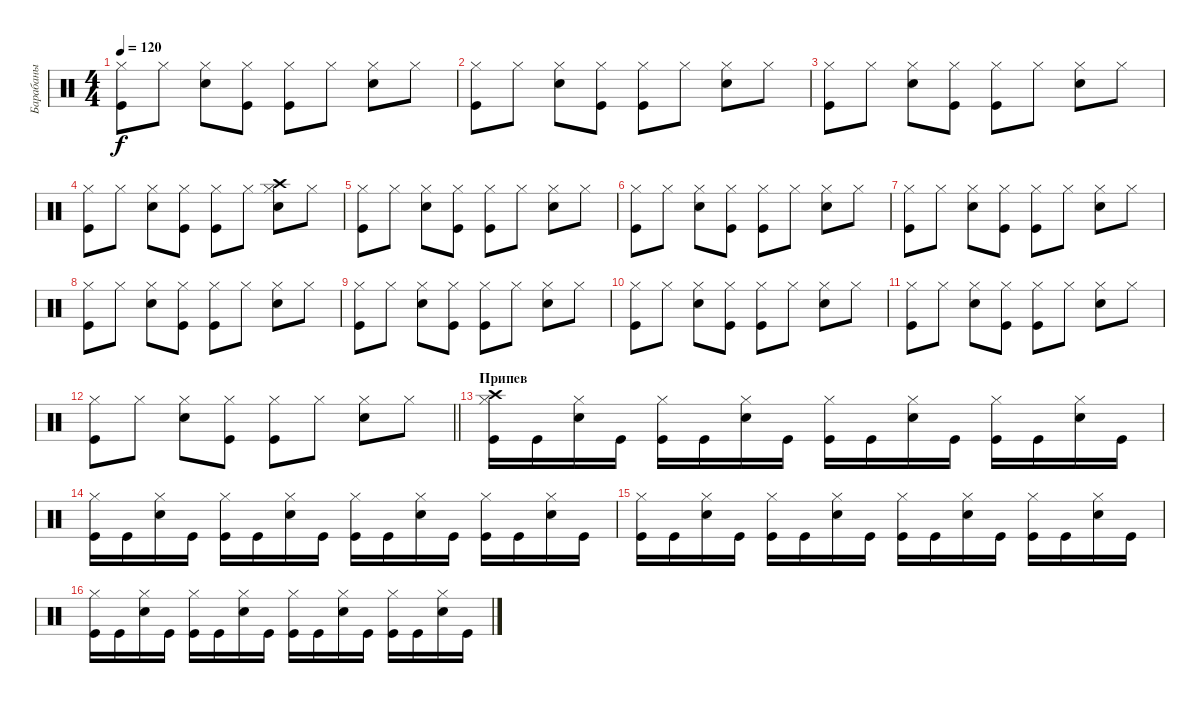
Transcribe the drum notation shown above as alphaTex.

\track ("Барабаны" "Барабаны") {instrument percussion}
\staff {score}
\articulation defaults
\ts (4 4)
\tempo 120
\clef neutral
\ks c
("Kick (hit)" "Hi-Hat (closed)").8{dy f} "Hi-Hat (closed)".8 ("Snare (hit) 2" "Hi-Hat (closed)").8 ("Kick (hit)" "Hi-Hat (closed)").8 ("Kick (hit)" "Hi-Hat (closed)").8 "Hi-Hat (closed)".8 ("Snare (hit) 2" "Hi-Hat (closed)").8 "Hi-Hat (closed)".8 |
("Kick (hit)" "Hi-Hat (closed)").8 "Hi-Hat (closed)".8 ("Snare (hit) 2" "Hi-Hat (closed)").8 ("Kick (hit)" "Hi-Hat (closed)").8 ("Kick (hit)" "Hi-Hat (closed)").8 "Hi-Hat (closed)".8 ("Snare (hit) 2" "Hi-Hat (closed)").8 "Hi-Hat (closed)".8 |
("Kick (hit)" "Hi-Hat (closed)").8 "Hi-Hat (closed)".8 ("Snare (hit) 2" "Hi-Hat (closed)").8 ("Kick (hit)" "Hi-Hat (closed)").8 ("Kick (hit)" "Hi-Hat (closed)").8 "Hi-Hat (closed)".8 ("Snare (hit) 2" "Hi-Hat (closed)").8 "Hi-Hat (closed)".8 |
("Kick (hit)" "Hi-Hat (closed)").8 "Hi-Hat (closed)".8 ("Snare (hit) 2" "Hi-Hat (closed)").8 ("Kick (hit)" "Hi-Hat (closed)").8 ("Kick (hit)" "Hi-Hat (closed)").8 "Hi-Hat (closed)".8 ("Snare (hit) 2" "Hi-Hat (closed)" "Crash high (hit)").8 "Hi-Hat (closed)".8 |
("Kick (hit)" "Hi-Hat (closed)").8 "Hi-Hat (closed)".8 ("Snare (hit) 2" "Hi-Hat (closed)").8 ("Kick (hit)" "Hi-Hat (closed)").8 ("Kick (hit)" "Hi-Hat (closed)").8 "Hi-Hat (closed)".8 ("Snare (hit) 2" "Hi-Hat (closed)").8 "Hi-Hat (closed)".8 |
("Kick (hit)" "Hi-Hat (closed)").8 "Hi-Hat (closed)".8 ("Snare (hit) 2" "Hi-Hat (closed)").8 ("Kick (hit)" "Hi-Hat (closed)").8 ("Kick (hit)" "Hi-Hat (closed)").8 "Hi-Hat (closed)".8 ("Snare (hit) 2" "Hi-Hat (closed)").8 "Hi-Hat (closed)".8 |
("Kick (hit)" "Hi-Hat (closed)").8 "Hi-Hat (closed)".8 ("Snare (hit) 2" "Hi-Hat (closed)").8 ("Kick (hit)" "Hi-Hat (closed)").8 ("Kick (hit)" "Hi-Hat (closed)").8 "Hi-Hat (closed)".8 ("Snare (hit) 2" "Hi-Hat (closed)").8 "Hi-Hat (closed)".8 |
("Kick (hit)" "Hi-Hat (closed)").8 "Hi-Hat (closed)".8 ("Snare (hit) 2" "Hi-Hat (closed)").8 ("Kick (hit)" "Hi-Hat (closed)").8 ("Kick (hit)" "Hi-Hat (closed)").8 "Hi-Hat (closed)".8 ("Snare (hit) 2" "Hi-Hat (closed)").8 "Hi-Hat (closed)".8 |
("Kick (hit)" "Hi-Hat (closed)").8 "Hi-Hat (closed)".8 ("Snare (hit) 2" "Hi-Hat (closed)").8 ("Kick (hit)" "Hi-Hat (closed)").8 ("Kick (hit)" "Hi-Hat (closed)").8 "Hi-Hat (closed)".8 ("Snare (hit) 2" "Hi-Hat (closed)").8 "Hi-Hat (closed)".8 |
("Kick (hit)" "Hi-Hat (closed)").8 "Hi-Hat (closed)".8 ("Snare (hit) 2" "Hi-Hat (closed)").8 ("Kick (hit)" "Hi-Hat (closed)").8 ("Kick (hit)" "Hi-Hat (closed)").8 "Hi-Hat (closed)".8 ("Snare (hit) 2" "Hi-Hat (closed)").8 "Hi-Hat (closed)".8 |
("Kick (hit)" "Hi-Hat (closed)").8 "Hi-Hat (closed)".8 ("Snare (hit) 2" "Hi-Hat (closed)").8 ("Kick (hit)" "Hi-Hat (closed)").8 ("Kick (hit)" "Hi-Hat (closed)").8 "Hi-Hat (closed)".8 ("Snare (hit) 2" "Hi-Hat (closed)").8 "Hi-Hat (closed)".8 |
\barLineRight lightlight
("Kick (hit)" "Hi-Hat (closed)").8 "Hi-Hat (closed)".8 ("Snare (hit) 2" "Hi-Hat (closed)").8 ("Kick (hit)" "Hi-Hat (closed)").8 ("Kick (hit)" "Hi-Hat (closed)").8 "Hi-Hat (closed)".8 ("Snare (hit) 2" "Hi-Hat (closed)").8 "Hi-Hat (closed)".8 |
\section ("" "Припев")
("Kick (hit)" "Hi-Hat (closed)" "Crash high (hit)").16 "Kick (hit)".16 ("Snare (hit) 2" "Hi-Hat (closed)").16 "Kick (hit)".16 ("Kick (hit)" "Hi-Hat (closed)").16 "Kick (hit)".16 ("Snare (hit) 2" "Hi-Hat (closed)").16 "Kick (hit)".16 ("Kick (hit)" "Hi-Hat (closed)").16 "Kick (hit)".16 ("Snare (hit) 2" "Hi-Hat (closed)").16 "Kick (hit)".16 ("Kick (hit)" "Hi-Hat (closed)").16 "Kick (hit)".16 ("Snare (hit) 2" "Hi-Hat (closed)").16 "Kick (hit)".16 |
("Kick (hit)" "Hi-Hat (closed)").16 "Kick (hit)".16 ("Snare (hit) 2" "Hi-Hat (closed)").16 "Kick (hit)".16 ("Kick (hit)" "Hi-Hat (closed)").16 "Kick (hit)".16 ("Snare (hit) 2" "Hi-Hat (closed)").16 "Kick (hit)".16 ("Kick (hit)" "Hi-Hat (closed)").16 "Kick (hit)".16 ("Snare (hit) 2" "Hi-Hat (closed)").16 "Kick (hit)".16 ("Kick (hit)" "Hi-Hat (closed)").16 "Kick (hit)".16 ("Snare (hit) 2" "Hi-Hat (closed)").16 "Kick (hit)".16 |
("Kick (hit)" "Hi-Hat (closed)").16 "Kick (hit)".16 ("Snare (hit) 2" "Hi-Hat (closed)").16 "Kick (hit)".16 ("Kick (hit)" "Hi-Hat (closed)").16 "Kick (hit)".16 ("Snare (hit) 2" "Hi-Hat (closed)").16 "Kick (hit)".16 ("Kick (hit)" "Hi-Hat (closed)").16 "Kick (hit)".16 ("Snare (hit) 2" "Hi-Hat (closed)").16 "Kick (hit)".16 ("Kick (hit)" "Hi-Hat (closed)").16 "Kick (hit)".16 ("Snare (hit) 2" "Hi-Hat (closed)").16 "Kick (hit)".16 |
("Kick (hit)" "Hi-Hat (closed)").16 "Kick (hit)".16 ("Snare (hit) 2" "Hi-Hat (closed)").16 "Kick (hit)".16 ("Kick (hit)" "Hi-Hat (closed)").16 "Kick (hit)".16 ("Snare (hit) 2" "Hi-Hat (closed)").16 "Kick (hit)".16 ("Kick (hit)" "Hi-Hat (closed)").16 "Kick (hit)".16 ("Snare (hit) 2" "Hi-Hat (closed)").16 "Kick (hit)".16 ("Kick (hit)" "Hi-Hat (closed)").16 "Kick (hit)".16 ("Snare (hit) 2" "Hi-Hat (closed)").16 "Kick (hit)".16
